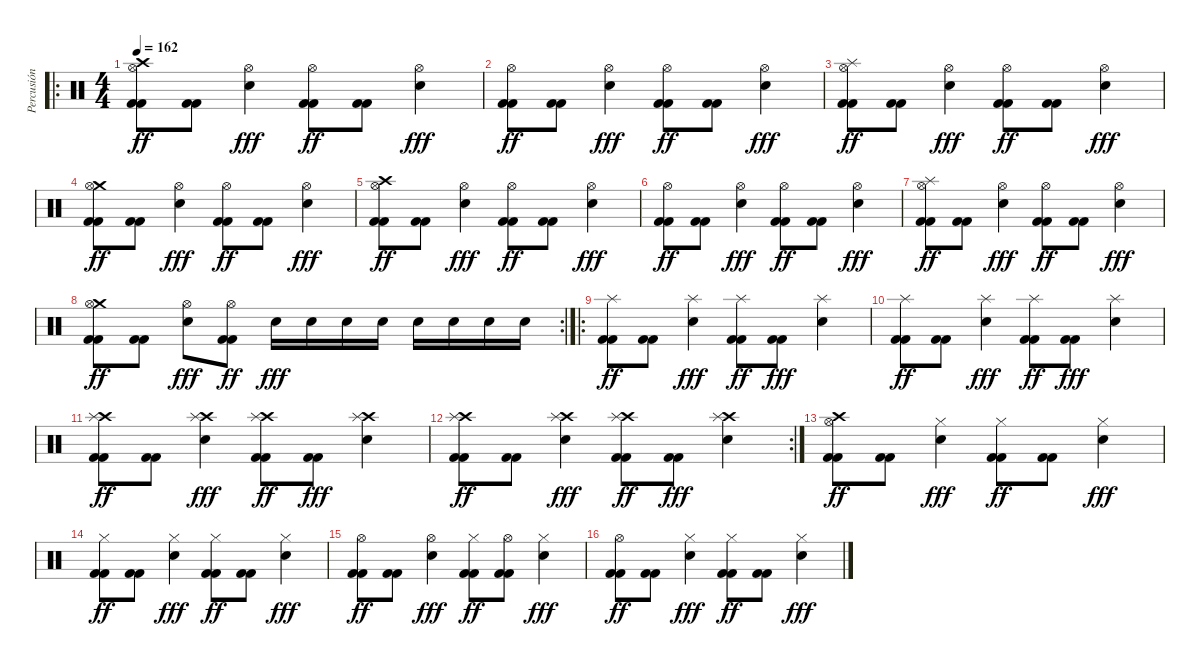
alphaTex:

\track ("Percusión" "Percusión") {instrument percussion}
\staff {score}
\articulation defaults
\ro
\ts (4 4)
\tempo 162
\clef neutral
\ks c
("Crash high (hit)" "Hi-Hat (open)" "Kick (hit) 2" "Kick (hit) 2").8{dy ff} ("Kick (hit) 2" "Kick (hit) 2").8 ("Hi-Hat (open)" "Snare (hit) 2").4{dy fff} ("Hi-Hat (open)" "Kick (hit) 2" "Kick (hit) 2").8{dy ff} ("Kick (hit) 2" "Kick (hit) 2").8 ("Hi-Hat (open)" "Snare (hit) 2").4{dy fff} |
("Hi-Hat (open)" "Kick (hit) 2" "Kick (hit) 2").8{dy ff} ("Kick (hit) 2" "Kick (hit) 2").8 ("Hi-Hat (open)" "Snare (hit) 2").4{dy fff} ("Hi-Hat (open)" "Kick (hit) 2" "Kick (hit) 2").8{dy ff} ("Kick (hit) 2" "Kick (hit) 2").8 ("Hi-Hat (open)" "Snare (hit) 2").4{dy fff} |
("Splash (hit)" "Hi-Hat (open)" "Kick (hit) 2" "Kick (hit) 2").8{dy ff} ("Kick (hit) 2" "Kick (hit) 2").8 ("Hi-Hat (open)" "Snare (hit) 2").4{dy fff} ("Hi-Hat (open)" "Kick (hit) 2" "Kick (hit) 2").8{dy ff} ("Kick (hit) 2" "Kick (hit) 2").8 ("Hi-Hat (open)" "Snare (hit) 2").4{dy fff} |
("Crash medium (hit)" "Hi-Hat (open)" "Kick (hit) 2" "Kick (hit) 2").8{dy ff} ("Kick (hit) 2" "Kick (hit) 2").8 ("Hi-Hat (open)" "Snare (hit) 2").4{dy fff} ("Hi-Hat (open)" "Kick (hit) 2" "Kick (hit) 2").8{dy ff} ("Kick (hit) 2" "Kick (hit) 2").8 ("Hi-Hat (open)" "Snare (hit) 2").4{dy fff} |
("Crash high (hit)" "Hi-Hat (open)" "Kick (hit) 2" "Kick (hit) 2").8{dy ff} ("Kick (hit) 2" "Kick (hit) 2").8 ("Hi-Hat (open)" "Snare (hit) 2").4{dy fff} ("Hi-Hat (open)" "Kick (hit) 2" "Kick (hit) 2").8{dy ff} ("Kick (hit) 2" "Kick (hit) 2").8 ("Hi-Hat (open)" "Snare (hit) 2").4{dy fff} |
("Hi-Hat (open)" "Kick (hit) 2" "Kick (hit) 2").8{dy ff} ("Kick (hit) 2" "Kick (hit) 2").8 ("Hi-Hat (open)" "Snare (hit) 2").4{dy fff} ("Hi-Hat (open)" "Kick (hit) 2" "Kick (hit) 2").8{dy ff} ("Kick (hit) 2" "Kick (hit) 2").8 ("Hi-Hat (open)" "Snare (hit) 2").4{dy fff} |
("Splash (hit)" "Hi-Hat (open)" "Kick (hit) 2" "Kick (hit) 2").8{dy ff} ("Kick (hit) 2" "Kick (hit) 2").8 ("Hi-Hat (open)" "Snare (hit) 2").4{dy fff} ("Hi-Hat (open)" "Kick (hit) 2" "Kick (hit) 2").8{dy ff} ("Kick (hit) 2" "Kick (hit) 2").8 ("Hi-Hat (open)" "Snare (hit) 2").4{dy fff} |
\rc 2
("Crash medium (hit)" "Hi-Hat (open)" "Kick (hit) 2" "Kick (hit) 2").8{dy ff} ("Kick (hit) 2" "Kick (hit) 2").8 ("Hi-Hat (open)" "Snare (hit) 2").8{dy fff} ("Hi-Hat (open)" "Kick (hit) 2" "Kick (hit) 2").8{dy ff} "Snare (hit) 2".16{dy fff} "Snare (hit) 2".16 "Snare (hit) 2".16 "Snare (hit) 2".16 "Snare (hit) 2".16 "Snare (hit) 2".16 "Snare (hit) 2".16 "Snare (hit) 2".16 |
\ro
("Splash (hit)" "Kick (hit) 2" "Kick (hit) 2").8{dy ff} ("Kick (hit) 2" "Kick (hit) 2").8 ("Splash (hit)" "Snare (hit) 2").4{dy fff} ("Splash (hit)" "Kick (hit) 2" "Kick (hit) 2").8{dy ff} ("Kick (hit) 2" "Kick (hit) 2").8{dy fff} ("Splash (hit)" "Snare (hit) 2").4 |
("Splash (hit)" "Kick (hit) 2" "Kick (hit) 2").8{dy ff} ("Kick (hit) 2" "Kick (hit) 2").8 ("Splash (hit)" "Snare (hit) 2").4{dy fff} ("Splash (hit)" "Kick (hit) 2" "Kick (hit) 2").8{dy ff} ("Kick (hit) 2" "Kick (hit) 2").8{dy fff} ("Splash (hit)" "Snare (hit) 2").4 |
("Crash high (hit)" "Splash (hit)" "Kick (hit) 2" "Kick (hit) 2").8{dy ff} ("Kick (hit) 2" "Kick (hit) 2").8 ("Crash high (hit)" "Splash (hit)" "Snare (hit) 2").4{dy fff} ("Crash high (hit)" "Splash (hit)" "Kick (hit) 2" "Kick (hit) 2").8{dy ff} ("Kick (hit) 2" "Kick (hit) 2").8{dy fff} ("Crash high (hit)" "Splash (hit)" "Snare (hit) 2").4 |
\rc 2
("Crash high (hit)" "Splash (hit)" "Kick (hit) 2" "Kick (hit) 2").8{dy ff} ("Kick (hit) 2" "Kick (hit) 2").8 ("Crash high (hit)" "Splash (hit)" "Snare (hit) 2").4{dy fff} ("Crash high (hit)" "Splash (hit)" "Kick (hit) 2" "Kick (hit) 2").8{dy ff} ("Kick (hit) 2" "Kick (hit) 2").8{dy fff} ("Crash high (hit)" "Splash (hit)" "Snare (hit) 2").4 |
("Crash high (hit)" "Hi-Hat (open)" "Kick (hit) 2" "Kick (hit) 2").8{dy ff} ("Kick (hit) 2" "Kick (hit) 2").8 ("Hi-Hat (closed)" "Snare (hit) 2").4{dy fff} ("Hi-Hat (closed)" "Kick (hit) 2" "Kick (hit) 2").8{dy ff} ("Kick (hit) 2" "Kick (hit) 2").8 ("Hi-Hat (closed)" "Snare (hit) 2").4{dy fff} |
("Hi-Hat (closed)" "Kick (hit) 2" "Kick (hit) 2").8{dy ff} ("Kick (hit) 2" "Kick (hit) 2").8 ("Hi-Hat (closed)" "Snare (hit) 2").4{dy fff} ("Hi-Hat (closed)" "Kick (hit) 2" "Kick (hit) 2").8{dy ff} ("Kick (hit) 2" "Kick (hit) 2").8 ("Hi-Hat (closed)" "Snare (hit) 2").4{dy fff} |
("Hi-Hat (open)" "Kick (hit) 2" "Kick (hit) 2").8{dy ff} ("Kick (hit) 2" "Kick (hit) 2").8 ("Hi-Hat (open)" "Snare (hit) 2").4{dy fff} ("Hi-Hat (closed)" "Kick (hit) 2" "Kick (hit) 2").8{dy ff} ("Hi-Hat (open)" "Kick (hit) 2" "Kick (hit) 2").8 ("Hi-Hat (closed)" "Snare (hit) 2").4{dy fff} |
("Hi-Hat (open)" "Kick (hit) 2" "Kick (hit) 2").8{dy ff} ("Kick (hit) 2" "Kick (hit) 2").8 ("Hi-Hat (closed)" "Snare (hit) 2").4{dy fff} ("Hi-Hat (closed)" "Kick (hit) 2" "Kick (hit) 2").8{dy ff} ("Kick (hit) 2" "Kick (hit) 2").8 ("Hi-Hat (closed)" "Snare (hit) 2").4{dy fff}
